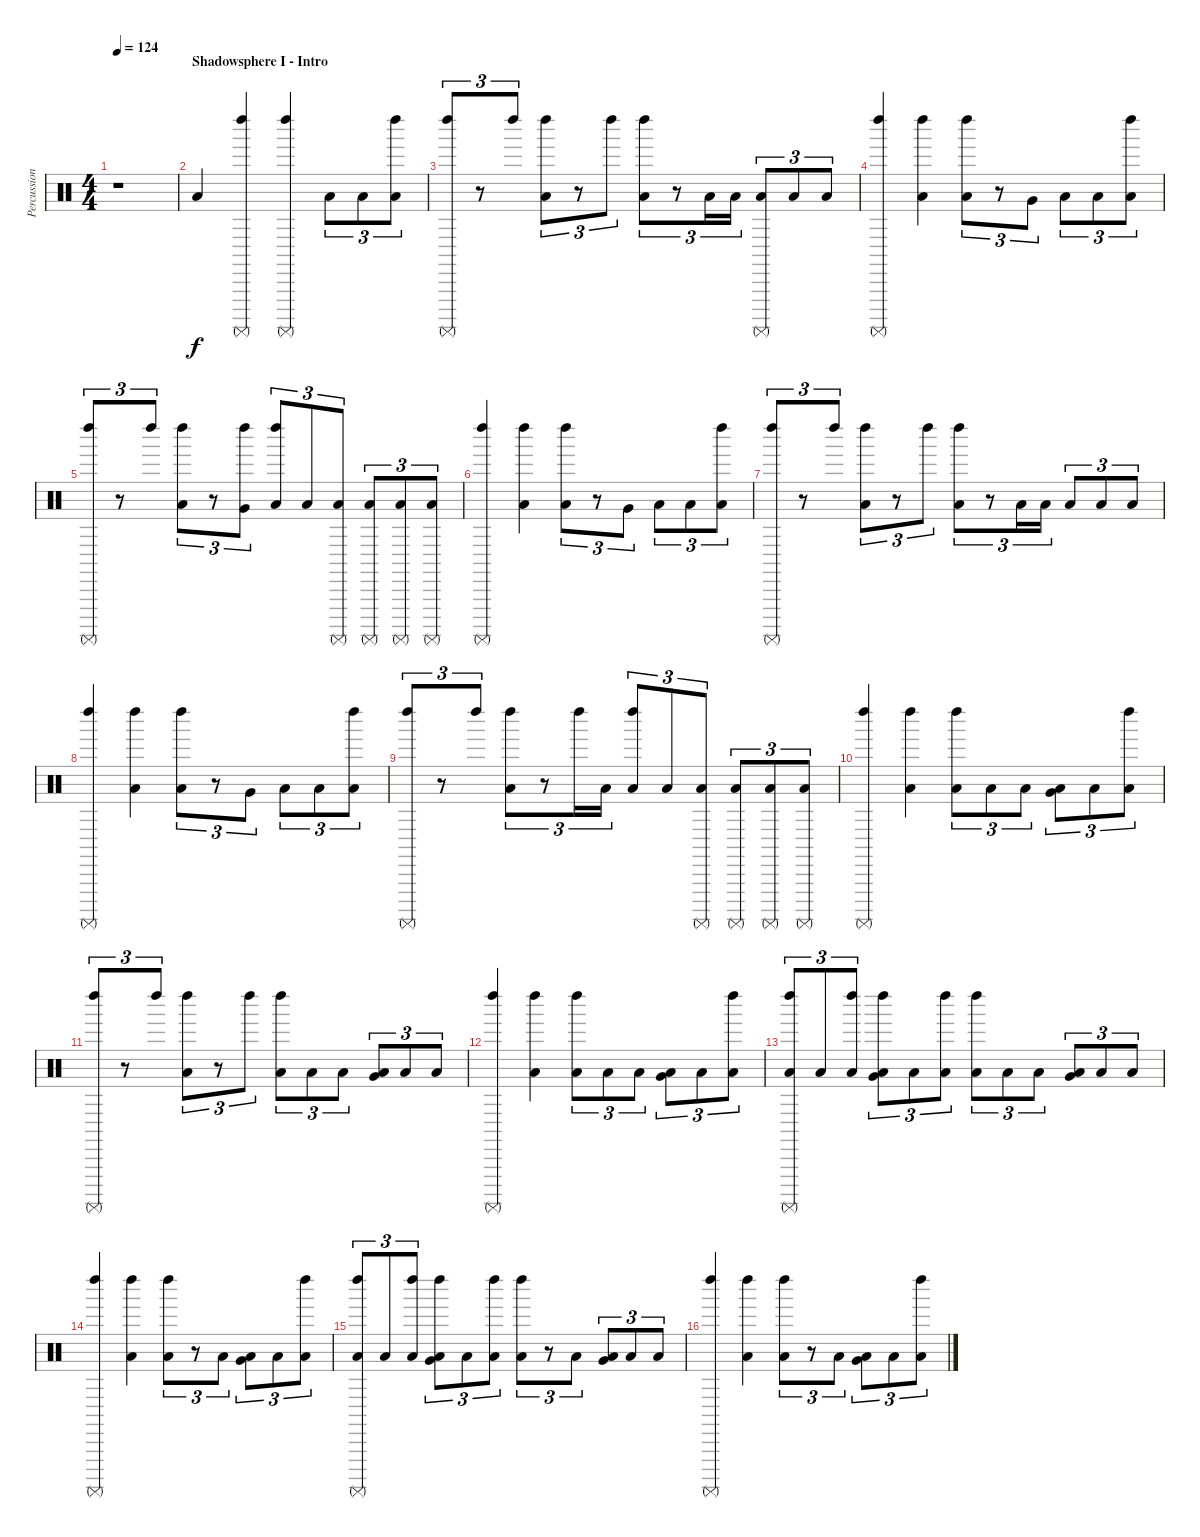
\track ("Percussion" "Percussion") {instrument percussion}
\staff {score}
\articulation defaults
\ts (4 4)
\tempo 124
\clef neutral
\ks c
r.1{dy f} |
\section ("" "Shadowsphere I - Intro")
"Low Floor Tom (hit)".4 ("Left Maraca (hit)" "Surdo (mute)").4 ("Left Maraca (hit)" "Surdo (mute)").4 "Low Floor Tom (hit)".8{tu (3 2)} "Low Floor Tom (hit)".8{tu (3 2)} ("Left Maraca (hit)" "Low Floor Tom (hit)").8{tu (3 2)} |
("Left Maraca (hit)" "Surdo (mute)").8{tu (3 2)} r.8{tu (3 2)} "Left Maraca (hit)".8{tu (3 2)} ("Left Maraca (hit)" "Low Floor Tom (hit)").8{tu (3 2)} r.8{tu (3 2)} "Left Maraca (hit)".8{tu (3 2)} ("Left Maraca (hit)" "Low Floor Tom (hit)").8{tu (3 2)} r.8{tu (3 2)} "Low Floor Tom (hit)".16{tu (3 2)} "Low Floor Tom (hit)".16{tu (3 2)} ("Low Floor Tom (hit)" "Surdo (mute)").8{tu (3 2)} "Low Floor Tom (hit)".8{tu (3 2)} "Low Floor Tom (hit)".8{tu (3 2)} |
("Left Maraca (hit)" "Surdo (mute)").4 ("Left Maraca (hit)" "Low Floor Tom (hit)").4 ("Left Maraca (hit)" "Low Floor Tom (hit)").8{tu (3 2)} r.8{tu (3 2)} "Very Low Tom (hit)".8{tu (3 2)} "Low Floor Tom (hit)".8{tu (3 2)} "Low Floor Tom (hit)".8{tu (3 2)} ("Left Maraca (hit)" "Low Floor Tom (hit)").8{tu (3 2)} |
("Left Maraca (hit)" "Surdo (mute)").8{tu (3 2)} r.8{tu (3 2)} "Left Maraca (hit)".8{tu (3 2)} ("Left Maraca (hit)" "Low Floor Tom (hit)").8{tu (3 2)} r.8{tu (3 2)} ("Left Maraca (hit)" "Very Low Tom (hit)").8{tu (3 2)} ("Left Maraca (hit)" "Low Floor Tom (hit)").8{tu (3 2)} "Low Floor Tom (hit)".8{tu (3 2)} ("Low Floor Tom (hit)" "Surdo (mute)").8{tu (3 2)} ("Low Floor Tom (hit)" "Surdo (mute)").8{tu (3 2)} ("Low Floor Tom (hit)" "Surdo (mute)").8{tu (3 2)} ("Low Floor Tom (hit)" "Surdo (mute)").8{tu (3 2)} |
("Left Maraca (hit)" "Surdo (mute)").4 ("Left Maraca (hit)" "Low Floor Tom (hit)").4 ("Left Maraca (hit)" "Low Floor Tom (hit)").8{tu (3 2)} r.8{tu (3 2)} "Very Low Tom (hit)".8{tu (3 2)} "Low Floor Tom (hit)".8{tu (3 2)} "Low Floor Tom (hit)".8{tu (3 2)} ("Left Maraca (hit)" "Low Floor Tom (hit)").8{tu (3 2)} |
("Left Maraca (hit)" "Surdo (mute)").8{tu (3 2)} r.8{tu (3 2)} "Left Maraca (hit)".8{tu (3 2)} ("Left Maraca (hit)" "Low Floor Tom (hit)").8{tu (3 2)} r.8{tu (3 2)} "Left Maraca (hit)".8{tu (3 2)} ("Left Maraca (hit)" "Low Floor Tom (hit)").8{tu (3 2)} r.8{tu (3 2)} "Low Floor Tom (hit)".16{tu (3 2)} "Low Floor Tom (hit)".16{tu (3 2)} "Low Floor Tom (hit)".8{tu (3 2)} "Low Floor Tom (hit)".8{tu (3 2)} "Low Floor Tom (hit)".8{tu (3 2)} |
("Left Maraca (hit)" "Surdo (mute)").4 ("Left Maraca (hit)" "Low Floor Tom (hit)").4 ("Left Maraca (hit)" "Low Floor Tom (hit)").8{tu (3 2)} r.8{tu (3 2)} "Very Low Tom (hit)".8{tu (3 2)} "Low Floor Tom (hit)".8{tu (3 2)} "Low Floor Tom (hit)".8{tu (3 2)} ("Left Maraca (hit)" "Low Floor Tom (hit)").8{tu (3 2)} |
("Left Maraca (hit)" "Surdo (mute)").8{tu (3 2)} r.8{tu (3 2)} "Left Maraca (hit)".8{tu (3 2)} ("Left Maraca (hit)" "Low Floor Tom (hit)").8{tu (3 2)} r.8{tu (3 2)} "Left Maraca (hit)".16{tu (3 2)} "Low Floor Tom (hit)".16{tu (3 2)} ("Left Maraca (hit)" "Low Floor Tom (hit)").8{tu (3 2)} "Low Floor Tom (hit)".8{tu (3 2)} ("Low Floor Tom (hit)" "Surdo (mute)").8{tu (3 2)} ("Low Floor Tom (hit)" "Surdo (mute)").8{tu (3 2)} ("Low Floor Tom (hit)" "Surdo (mute)").8{tu (3 2)} ("Low Floor Tom (hit)" "Surdo (mute)").8{tu (3 2)} |
("Left Maraca (hit)" "Surdo (mute)").4 ("Left Maraca (hit)" "Low Floor Tom (hit)").4 ("Left Maraca (hit)" "Low Floor Tom (hit)").8{tu (3 2)} "Low Floor Tom (hit)".8{tu (3 2)} "Low Floor Tom (hit)".8{tu (3 2)} ("Very Low Tom (hit)" "Low Floor Tom (hit)").8{tu (3 2)} "Low Floor Tom (hit)".8{tu (3 2)} ("Left Maraca (hit)" "Low Floor Tom (hit)").8{tu (3 2)} |
("Left Maraca (hit)" "Surdo (mute)").8{tu (3 2)} r.8{tu (3 2)} "Left Maraca (hit)".8{tu (3 2)} ("Left Maraca (hit)" "Low Floor Tom (hit)").8{tu (3 2)} r.8{tu (3 2)} "Left Maraca (hit)".8{tu (3 2)} ("Left Maraca (hit)" "Low Floor Tom (hit)").8{tu (3 2)} "Low Floor Tom (hit)".8{tu (3 2)} "Low Floor Tom (hit)".8{tu (3 2)} ("Very Low Tom (hit)" "Low Floor Tom (hit)").8{tu (3 2)} "Low Floor Tom (hit)".8{tu (3 2)} "Low Floor Tom (hit)".8{tu (3 2)} |
("Left Maraca (hit)" "Surdo (mute)").4 ("Left Maraca (hit)" "Low Floor Tom (hit)").4 ("Left Maraca (hit)" "Low Floor Tom (hit)").8{tu (3 2)} "Low Floor Tom (hit)".8{tu (3 2)} "Low Floor Tom (hit)".8{tu (3 2)} ("Very Low Tom (hit)" "Low Floor Tom (hit)").8{tu (3 2)} "Low Floor Tom (hit)".8{tu (3 2)} ("Left Maraca (hit)" "Low Floor Tom (hit)").8{tu (3 2)} |
("Left Maraca (hit)" "Low Floor Tom (hit)" "Surdo (mute)").8{tu (3 2)} "Low Floor Tom (hit)".8{tu (3 2)} ("Left Maraca (hit)" "Low Floor Tom (hit)").8{tu (3 2)} ("Left Maraca (hit)" "Very Low Tom (hit)" "Low Floor Tom (hit)").8{tu (3 2)} "Low Floor Tom (hit)".8{tu (3 2)} ("Left Maraca (hit)" "Low Floor Tom (hit)").8{tu (3 2)} ("Left Maraca (hit)" "Low Floor Tom (hit)").8{tu (3 2)} "Low Floor Tom (hit)".8{tu (3 2)} "Low Floor Tom (hit)".8{tu (3 2)} ("Very Low Tom (hit)" "Low Floor Tom (hit)").8{tu (3 2)} "Low Floor Tom (hit)".8{tu (3 2)} "Low Floor Tom (hit)".8{tu (3 2)} |
("Left Maraca (hit)" "Surdo (mute)").4 ("Left Maraca (hit)" "Low Floor Tom (hit)").4 ("Left Maraca (hit)" "Low Floor Tom (hit)").8{tu (3 2)} r.8{tu (3 2)} "Low Floor Tom (hit)".8{tu (3 2)} ("Very Low Tom (hit)" "Low Floor Tom (hit)").8{tu (3 2)} "Low Floor Tom (hit)".8{tu (3 2)} ("Left Maraca (hit)" "Low Floor Tom (hit)").8{tu (3 2)} |
("Left Maraca (hit)" "Low Floor Tom (hit)" "Surdo (mute)").8{tu (3 2)} "Low Floor Tom (hit)".8{tu (3 2)} ("Left Maraca (hit)" "Low Floor Tom (hit)").8{tu (3 2)} ("Left Maraca (hit)" "Very Low Tom (hit)" "Low Floor Tom (hit)").8{tu (3 2)} "Low Floor Tom (hit)".8{tu (3 2)} ("Left Maraca (hit)" "Low Floor Tom (hit)").8{tu (3 2)} ("Left Maraca (hit)" "Low Floor Tom (hit)").8{tu (3 2)} r.8{tu (3 2)} "Low Floor Tom (hit)".8{tu (3 2)} ("Very Low Tom (hit)" "Low Floor Tom (hit)").8{tu (3 2)} "Low Floor Tom (hit)".8{tu (3 2)} "Low Floor Tom (hit)".8{tu (3 2)} |
("Left Maraca (hit)" "Surdo (mute)").4 ("Left Maraca (hit)" "Low Floor Tom (hit)").4 ("Left Maraca (hit)" "Low Floor Tom (hit)").8{tu (3 2)} r.8{tu (3 2)} "Low Floor Tom (hit)".8{tu (3 2)} ("Very Low Tom (hit)" "Low Floor Tom (hit)").8{tu (3 2)} "Low Floor Tom (hit)".8{tu (3 2)} ("Left Maraca (hit)" "Low Floor Tom (hit)").8{tu (3 2)}
